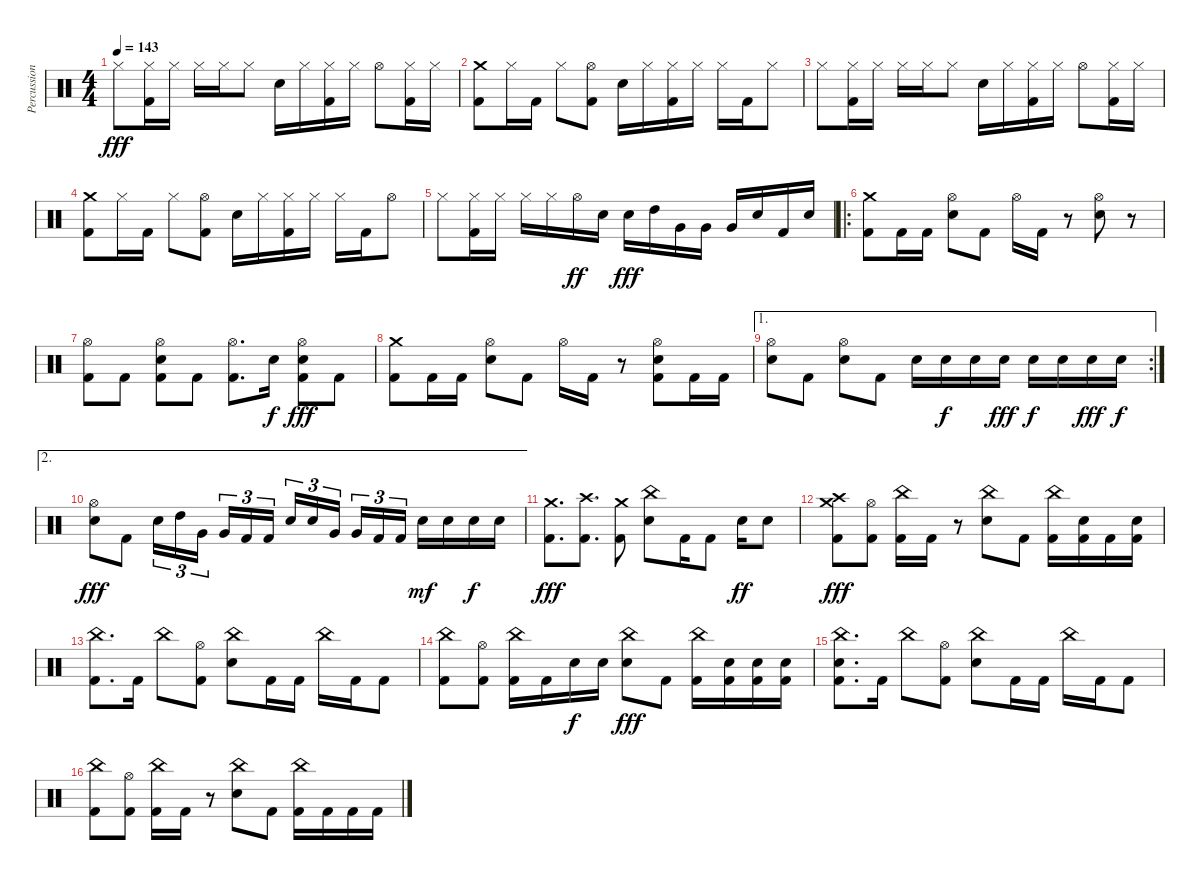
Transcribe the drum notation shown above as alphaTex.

\track ("Percussion" "Percussion") {instrument percussion}
\staff {score}
\articulation defaults
\ts (4 4)
\tempo 143
\clef neutral
\ks c "Hi-Hat (closed)".8{dy fff}
("Hi-Hat (closed)" "Kick (hit) 2").16 "Hi-Hat (closed)".16 "Hi-Hat (closed)".16 "Hi-Hat (closed)".16 "Hi-Hat (closed)".8 "Electric Snare (hit)".16 "Hi-Hat (closed)".16 ("Hi-Hat (closed)" "Kick (hit) 2").16 "Hi-Hat (closed)".16 "Hi-Hat (open)".8 ("Hi-Hat (closed)" "Kick (hit) 2").16 "Hi-Hat (closed)".16 |
("Kick (hit) 2" "Crash medium (hit)").8 "Hi-Hat (closed)".16 "Kick (hit) 2".16 "Hi-Hat (closed)".8 ("Hi-Hat (open)" "Kick (hit) 2").8 "Electric Snare (hit)".16 "Hi-Hat (closed)".16 ("Hi-Hat (closed)" "Kick (hit) 2").16 "Hi-Hat (closed)".16 "Hi-Hat (closed)".16 "Kick (hit) 2".16 "Hi-Hat (closed)".8 |
"Hi-Hat (closed)".8 ("Hi-Hat (closed)" "Kick (hit) 2").16 "Hi-Hat (closed)".16 "Hi-Hat (closed)".16 "Hi-Hat (closed)".16 "Hi-Hat (closed)".8 "Electric Snare (hit)".16 "Hi-Hat (closed)".16 ("Hi-Hat (closed)" "Kick (hit) 2").16 "Hi-Hat (closed)".16 "Hi-Hat (open)".8 ("Hi-Hat (closed)" "Kick (hit) 2").16 "Hi-Hat (closed)".16 |
("Kick (hit) 2" "Crash medium (hit)").8 "Hi-Hat (closed)".16 "Kick (hit) 2".16 "Hi-Hat (closed)".8 ("Hi-Hat (open)" "Kick (hit) 2").8 "Electric Snare (hit)".16 "Hi-Hat (closed)".16 ("Hi-Hat (closed)" "Kick (hit) 2").16 "Hi-Hat (closed)".16 "Hi-Hat (closed)".16 "Kick (hit) 2".16 "Hi-Hat (open)".8 |
"Hi-Hat (closed)".8 ("Hi-Hat (closed)" "Kick (hit) 2").16 "Hi-Hat (closed)".16 "Hi-Hat (closed)".16 "Hi-Hat (closed)".16 "Hi-Hat (open)".16{dy ff} "Electric Snare (hit)".16 "Electric Snare (hit)".16{dy fff} "High Tom (hit)".16 "Very Low Tom (hit)".16 "Very Low Tom (hit)".16 "Very Low Tom (hit)".16 "Electric Snare (hit)".16 "Kick (hit) 2".16 "Electric Snare (hit)".16 |
\ro
("Crash medium (hit)" "Kick (hit) 2").8 "Kick (hit) 2".16 "Kick (hit) 2".16 ("Hi-Hat (open)" "Electric Snare (hit)").8 "Kick (hit) 2".8 "Hi-Hat (open)".16 "Kick (hit) 2".16 r.8 ("Hi-Hat (open)" "Electric Snare (hit)").8 r.8 |
("Hi-Hat (open)" "Kick (hit) 2").8 "Kick (hit) 2".8 ("Hi-Hat (open)" "Electric Snare (hit)" "Kick (hit) 2").8 "Kick (hit) 2".8 ("Hi-Hat (open)" "Kick (hit) 2").8{d} "Electric Snare (hit)".16{dy f} ("Kick (hit) 2" "Hi-Hat (open)" "Electric Snare (hit)").8{dy fff} "Kick (hit) 2".8 |
("Crash medium (hit)" "Kick (hit) 2").8 "Kick (hit) 2".16 "Kick (hit) 2".16 ("Hi-Hat (open)" "Electric Snare (hit)").8 "Kick (hit) 2".8 "Hi-Hat (open)".16 "Kick (hit) 2".16 r.8 ("Kick (hit) 2" "Hi-Hat (open)" "Electric Snare (hit)").8 "Kick (hit) 2".16 "Kick (hit) 2".16 |
\ae 1
\rc 2
("Hi-Hat (open)" "Electric Snare (hit)").8 "Kick (hit) 2".8 ("Hi-Hat (open)" "Electric Snare (hit)").8 "Kick (hit) 2".8 "Electric Snare (hit)".16 "Electric Snare (hit)".16{dy f} "Electric Snare (hit)".16 "Electric Snare (hit)".16{dy fff} "Electric Snare (hit)".16{dy f} "Electric Snare (hit)".16 "Electric Snare (hit)".16{dy fff} "Electric Snare (hit)".16{dy f} |
\ae 2
("Hi-Hat (open)" "Electric Snare (hit)").8{dy fff} "Kick (hit) 2".8 "Electric Snare (hit)".16{tu (3 2)} "High Tom (hit)".16{tu (3 2)} "Very Low Tom (hit)".16{tu (3 2) beam splitsecondary} "Very Low Tom (hit)".16{tu (3 2)} "Kick (hit) 2".16{tu (3 2)} "Kick (hit) 2".16{tu (3 2)} "Electric Snare (hit)".16{tu (3 2)} "Electric Snare (hit)".16{tu (3 2)} "Very Low Tom (hit)".16{tu (3 2) beam splitsecondary} "Very Low Tom (hit)".16{tu (3 2)} "Kick (hit) 2".16{tu (3 2)} "Kick (hit) 2".16{tu (3 2)} "Electric Snare (hit)".16{dy mf} "Electric Snare (hit)".16 "Electric Snare (hit)".16{dy f} "Electric Snare (hit)".16 |
("Kick (hit) 2" "Crash medium (hit)").8{d dy fff} ("Kick (hit) 2" "Crash high (hit)").8{d} ("Kick (hit) 2" "Crash medium (hit)").8 ("Electric Snare (hit)" "China (hit)").8 "Kick (hit) 2".16 "Kick (hit) 2".8 "Electric Snare (hit)".16{dy ff} "Electric Snare (hit)".8 |
("Kick (hit) 2" "Crash medium (hit)" "Crash high (hit)").8{dy fff} ("Kick (hit) 2" "Hi-Hat (open)").8 ("Kick (hit) 2" "China (hit)").16 "Kick (hit) 2".16 r.8 ("China (hit)" "Electric Snare (hit)").8 "Kick (hit) 2".8 ("Kick (hit) 2" "China (hit)").16 ("Kick (hit) 2" "Electric Snare (hit)").16 "Kick (hit) 2".16 ("Kick (hit) 2" "Electric Snare (hit)").16 |
("Kick (hit) 2" "China (hit)").8{d} "Kick (hit) 2".16 "China (hit)".8 ("Kick (hit) 2" "Hi-Hat (open)").8 ("Electric Snare (hit)" "China (hit)").8 "Kick (hit) 2".16 "Kick (hit) 2".16 "China (hit)".16 "Kick (hit) 2".16 "Kick (hit) 2".8 |
("Kick (hit) 2" "China (hit)").8 ("Kick (hit) 2" "Hi-Hat (open)").8 ("Kick (hit) 2" "China (hit)").16 "Kick (hit) 2".16 "Electric Snare (hit)".16{dy f} "Electric Snare (hit)".16 ("China (hit)" "Electric Snare (hit)").8{dy fff} "Kick (hit) 2".8 ("Kick (hit) 2" "China (hit)").16 ("Kick (hit) 2" "Electric Snare (hit)").16 ("Kick (hit) 2" "Electric Snare (hit)").16 ("Kick (hit) 2" "Electric Snare (hit)").16 |
("Kick (hit) 2" "China (hit)" "Electric Snare (hit)").8{d} "Kick (hit) 2".16 "China (hit)".8 ("Kick (hit) 2" "Hi-Hat (open)").8 ("Electric Snare (hit)" "China (hit)").8 "Kick (hit) 2".16 "Kick (hit) 2".16 "China (hit)".16 "Kick (hit) 2".16 "Kick (hit) 2".8 |
("Kick (hit) 2" "China (hit)").8 ("Kick (hit) 2" "Hi-Hat (open)").8 ("Kick (hit) 2" "China (hit)").16 "Kick (hit) 2".16 r.8 ("China (hit)" "Electric Snare (hit)").8 "Kick (hit) 2".8 ("Kick (hit) 2" "China (hit)").16 "Kick (hit) 2".16 "Kick (hit) 2".16 "Kick (hit) 2".16
